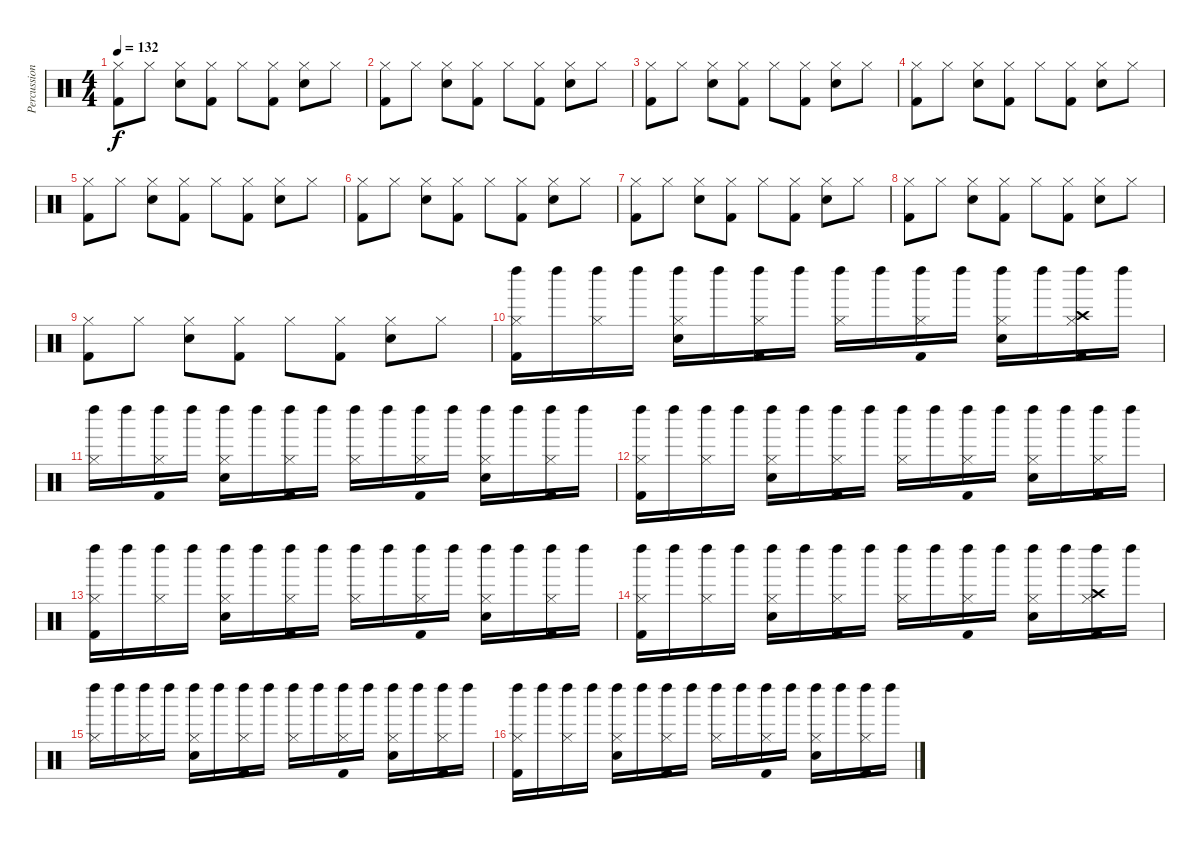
\track ("Percussion" "Percussion") {instrument percussion}
\staff {score}
\articulation defaults
\ts (4 4)
\tempo 132
\clef neutral
\ks c
("Hi-Hat (closed)" "Kick (hit) 2").8{dy f} "Hi-Hat (closed)".8 ("Hi-Hat (closed)" "Snare (hit) 2").8 ("Hi-Hat (closed)" "Kick (hit) 2").8 "Hi-Hat (closed)".8 ("Hi-Hat (closed)" "Kick (hit) 2").8 ("Hi-Hat (closed)" "Snare (hit) 2").8 "Hi-Hat (closed)".8 |
("Hi-Hat (closed)" "Kick (hit) 2").8 "Hi-Hat (closed)".8 ("Hi-Hat (closed)" "Snare (hit) 2").8 ("Hi-Hat (closed)" "Kick (hit) 2").8 "Hi-Hat (closed)".8 ("Hi-Hat (closed)" "Kick (hit) 2").8 ("Hi-Hat (closed)" "Snare (hit) 2").8 "Hi-Hat (closed)".8 |
("Hi-Hat (closed)" "Kick (hit) 2").8 "Hi-Hat (closed)".8 ("Hi-Hat (closed)" "Snare (hit) 2").8 ("Hi-Hat (closed)" "Kick (hit) 2").8 "Hi-Hat (closed)".8 ("Hi-Hat (closed)" "Kick (hit) 2").8 ("Hi-Hat (closed)" "Snare (hit) 2").8 "Hi-Hat (closed)".8 |
("Hi-Hat (closed)" "Kick (hit) 2").8 "Hi-Hat (closed)".8 ("Hi-Hat (closed)" "Snare (hit) 2").8 ("Hi-Hat (closed)" "Kick (hit) 2").8 "Hi-Hat (closed)".8 ("Hi-Hat (closed)" "Kick (hit) 2").8 ("Hi-Hat (closed)" "Snare (hit) 2").8 "Hi-Hat (closed)".8 |
("Hi-Hat (closed)" "Kick (hit) 2").8 "Hi-Hat (closed)".8 ("Hi-Hat (closed)" "Snare (hit) 2").8 ("Hi-Hat (closed)" "Kick (hit) 2").8 "Hi-Hat (closed)".8 ("Hi-Hat (closed)" "Kick (hit) 2").8 ("Hi-Hat (closed)" "Snare (hit) 2").8 "Hi-Hat (closed)".8 |
("Hi-Hat (closed)" "Kick (hit) 2").8 "Hi-Hat (closed)".8 ("Hi-Hat (closed)" "Snare (hit) 2").8 ("Hi-Hat (closed)" "Kick (hit) 2").8 "Hi-Hat (closed)".8 ("Hi-Hat (closed)" "Kick (hit) 2").8 ("Hi-Hat (closed)" "Snare (hit) 2").8 "Hi-Hat (closed)".8 |
("Hi-Hat (closed)" "Kick (hit) 2").8 "Hi-Hat (closed)".8 ("Hi-Hat (closed)" "Snare (hit) 2").8 ("Hi-Hat (closed)" "Kick (hit) 2").8 "Hi-Hat (closed)".8 ("Hi-Hat (closed)" "Kick (hit) 2").8 ("Hi-Hat (closed)" "Snare (hit) 2").8 "Hi-Hat (closed)".8 |
("Hi-Hat (closed)" "Kick (hit) 2").8 "Hi-Hat (closed)".8 ("Hi-Hat (closed)" "Snare (hit) 2").8 ("Hi-Hat (closed)" "Kick (hit) 2").8 "Hi-Hat (closed)".8 ("Hi-Hat (closed)" "Kick (hit) 2").8 ("Hi-Hat (closed)" "Snare (hit) 2").8 "Hi-Hat (closed)".8 |
("Hi-Hat (closed)" "Kick (hit) 2").8 "Hi-Hat (closed)".8 ("Hi-Hat (closed)" "Snare (hit) 2").8 ("Hi-Hat (closed)" "Kick (hit) 2").8 "Hi-Hat (closed)".8 ("Hi-Hat (closed)" "Kick (hit) 2").8 ("Hi-Hat (closed)" "Snare (hit) 2").8 "Hi-Hat (closed)".8 |
("Left Maraca (hit)" "Hi-Hat (closed)" "Kick (hit) 2").16 "Left Maraca (hit)".16 ("Left Maraca (hit)" "Hi-Hat (closed)").16 "Left Maraca (hit)".16 ("Left Maraca (hit)" "Hi-Hat (closed)" "Snare (hit) 2").16 "Left Maraca (hit)".16 ("Left Maraca (hit)" "Hi-Hat (closed)" "Kick (hit) 2").16 "Left Maraca (hit)".16 ("Left Maraca (hit)" "Hi-Hat (closed)").16 "Left Maraca (hit)".16 ("Left Maraca (hit)" "Hi-Hat (closed)" "Kick (hit) 2").16 "Left Maraca (hit)".16 ("Left Maraca (hit)" "Hi-Hat (closed)" "Snare (hit) 2").16 "Left Maraca (hit)".16 ("Crash high (hit)" "Left Maraca (hit)" "Hi-Hat (closed)" "Kick (hit) 2").16 "Left Maraca (hit)".16 |
("Left Maraca (hit)" "Hi-Hat (closed)").16 "Left Maraca (hit)".16 ("Left Maraca (hit)" "Hi-Hat (closed)" "Kick (hit) 2").16 "Left Maraca (hit)".16 ("Left Maraca (hit)" "Hi-Hat (closed)" "Snare (hit) 2").16 "Left Maraca (hit)".16 ("Left Maraca (hit)" "Hi-Hat (closed)" "Kick (hit) 2").16 "Left Maraca (hit)".16 ("Left Maraca (hit)" "Hi-Hat (closed)").16 "Left Maraca (hit)".16 ("Left Maraca (hit)" "Hi-Hat (closed)" "Kick (hit) 2").16 "Left Maraca (hit)".16 ("Left Maraca (hit)" "Hi-Hat (closed)" "Snare (hit) 2").16 "Left Maraca (hit)".16 ("Left Maraca (hit)" "Hi-Hat (closed)" "Kick (hit) 2").16 "Left Maraca (hit)".16 |
("Left Maraca (hit)" "Hi-Hat (closed)" "Kick (hit) 2").16 "Left Maraca (hit)".16 ("Left Maraca (hit)" "Hi-Hat (closed)").16 "Left Maraca (hit)".16 ("Left Maraca (hit)" "Hi-Hat (closed)" "Snare (hit) 2").16 "Left Maraca (hit)".16 ("Left Maraca (hit)" "Hi-Hat (closed)" "Kick (hit) 2").16 "Left Maraca (hit)".16 ("Left Maraca (hit)" "Hi-Hat (closed)").16 "Left Maraca (hit)".16 ("Left Maraca (hit)" "Hi-Hat (closed)" "Kick (hit) 2").16 "Left Maraca (hit)".16 ("Left Maraca (hit)" "Hi-Hat (closed)" "Snare (hit) 2").16 "Left Maraca (hit)".16 ("Left Maraca (hit)" "Hi-Hat (closed)" "Kick (hit) 2").16 "Left Maraca (hit)".16 |
("Left Maraca (hit)" "Hi-Hat (closed)" "Kick (hit) 2").16 "Left Maraca (hit)".16 ("Left Maraca (hit)" "Hi-Hat (closed)").16 "Left Maraca (hit)".16 ("Left Maraca (hit)" "Hi-Hat (closed)" "Snare (hit) 2").16 "Left Maraca (hit)".16 ("Left Maraca (hit)" "Hi-Hat (closed)" "Kick (hit) 2").16 "Left Maraca (hit)".16 ("Left Maraca (hit)" "Hi-Hat (closed)").16 "Left Maraca (hit)".16 ("Left Maraca (hit)" "Hi-Hat (closed)" "Kick (hit) 2").16 "Left Maraca (hit)".16 ("Left Maraca (hit)" "Hi-Hat (closed)" "Snare (hit) 2").16 "Left Maraca (hit)".16 ("Left Maraca (hit)" "Hi-Hat (closed)" "Kick (hit) 2").16 "Left Maraca (hit)".16 |
("Left Maraca (hit)" "Hi-Hat (closed)" "Kick (hit) 2").16 "Left Maraca (hit)".16 ("Left Maraca (hit)" "Hi-Hat (closed)").16 "Left Maraca (hit)".16 ("Left Maraca (hit)" "Hi-Hat (closed)" "Snare (hit) 2").16 "Left Maraca (hit)".16 ("Left Maraca (hit)" "Hi-Hat (closed)" "Kick (hit) 2").16 "Left Maraca (hit)".16 ("Left Maraca (hit)" "Hi-Hat (closed)").16 "Left Maraca (hit)".16 ("Left Maraca (hit)" "Hi-Hat (closed)" "Kick (hit) 2").16 "Left Maraca (hit)".16 ("Left Maraca (hit)" "Hi-Hat (closed)" "Snare (hit) 2").16 "Left Maraca (hit)".16 ("Crash high (hit)" "Left Maraca (hit)" "Hi-Hat (closed)" "Kick (hit) 2").16 "Left Maraca (hit)".16 |
("Left Maraca (hit)" "Hi-Hat (closed)").16 "Left Maraca (hit)".16 ("Left Maraca (hit)" "Hi-Hat (closed)").16 "Left Maraca (hit)".16 ("Left Maraca (hit)" "Hi-Hat (closed)" "Snare (hit) 2").16 "Left Maraca (hit)".16 ("Left Maraca (hit)" "Hi-Hat (closed)" "Kick (hit) 2").16 "Left Maraca (hit)".16 ("Left Maraca (hit)" "Hi-Hat (closed)").16 "Left Maraca (hit)".16 ("Left Maraca (hit)" "Hi-Hat (closed)" "Kick (hit) 2").16 "Left Maraca (hit)".16 ("Left Maraca (hit)" "Hi-Hat (closed)" "Snare (hit) 2").16 "Left Maraca (hit)".16 ("Left Maraca (hit)" "Hi-Hat (closed)" "Kick (hit) 2").16 "Left Maraca (hit)".16 |
("Left Maraca (hit)" "Hi-Hat (closed)" "Kick (hit) 2").16 "Left Maraca (hit)".16 ("Left Maraca (hit)" "Hi-Hat (closed)").16 "Left Maraca (hit)".16 ("Left Maraca (hit)" "Hi-Hat (closed)" "Snare (hit) 2").16 "Left Maraca (hit)".16 ("Left Maraca (hit)" "Hi-Hat (closed)" "Kick (hit) 2").16 "Left Maraca (hit)".16 ("Left Maraca (hit)" "Hi-Hat (closed)").16 "Left Maraca (hit)".16 ("Left Maraca (hit)" "Hi-Hat (closed)" "Kick (hit) 2").16 "Left Maraca (hit)".16 ("Left Maraca (hit)" "Hi-Hat (closed)" "Snare (hit) 2").16 "Left Maraca (hit)".16 ("Left Maraca (hit)" "Hi-Hat (closed)" "Kick (hit) 2").16 "Left Maraca (hit)".16
